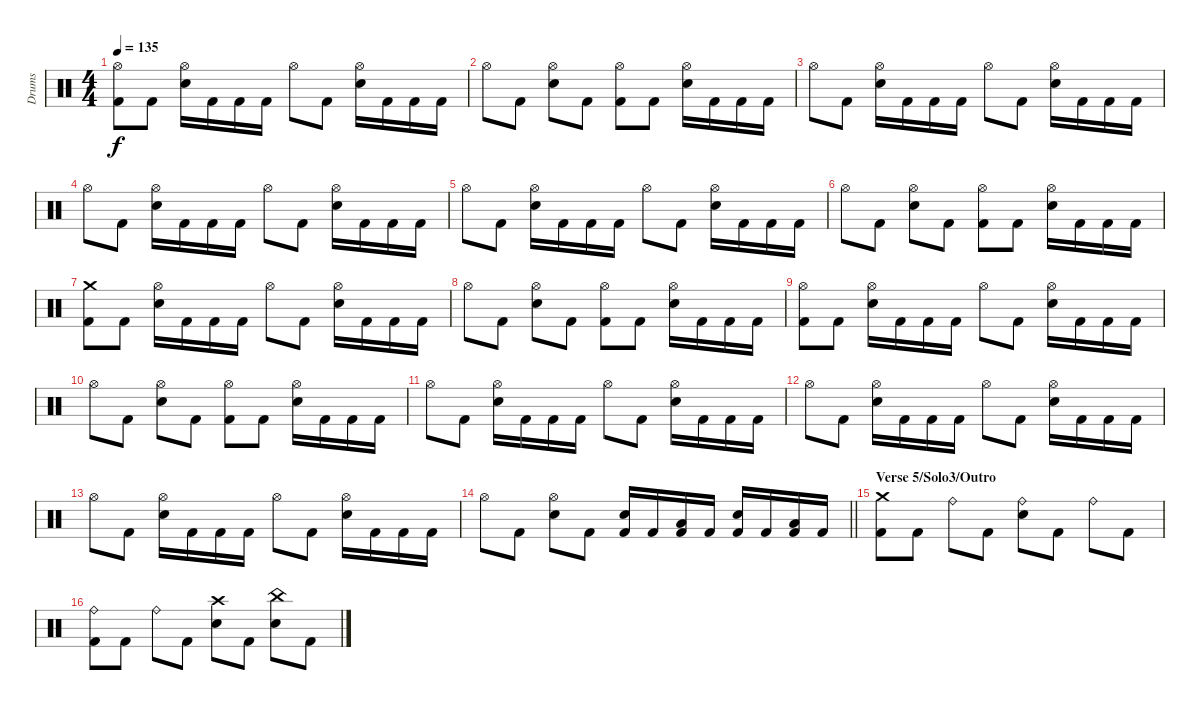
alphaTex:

\track ("Drums" "Drums") {instrument percussion}
\staff {score}
\articulation defaults
\ts (4 4)
\tempo 135
\clef neutral
\ks c
("Hi-Hat (open)" "Kick (hit) 2").8{dy f} "Kick (hit) 2".8 ("Hi-Hat (open)" "Snare (hit) 2").16 "Kick (hit) 2".16 "Kick (hit) 2".16 "Kick (hit) 2".16 "Hi-Hat (open)".8 "Kick (hit) 2".8 ("Hi-Hat (open)" "Snare (hit) 2").16 "Kick (hit) 2".16 "Kick (hit) 2".16 "Kick (hit) 2".16 |
"Hi-Hat (open)".8 "Kick (hit) 2".8 ("Hi-Hat (open)" "Snare (hit) 2").8 "Kick (hit) 2".8 ("Hi-Hat (open)" "Kick (hit) 2").8 "Kick (hit) 2".8 ("Hi-Hat (open)" "Snare (hit) 2").16 "Kick (hit) 2".16 "Kick (hit) 2".16 "Kick (hit) 2".16 |
"Hi-Hat (open)".8 "Kick (hit) 2".8 ("Hi-Hat (open)" "Snare (hit) 2").16 "Kick (hit) 2".16 "Kick (hit) 2".16 "Kick (hit) 2".16 "Hi-Hat (open)".8 "Kick (hit) 2".8 ("Hi-Hat (open)" "Snare (hit) 2").16 "Kick (hit) 2".16 "Kick (hit) 2".16 "Kick (hit) 2".16 |
"Hi-Hat (open)".8 "Kick (hit) 2".8 ("Hi-Hat (open)" "Snare (hit) 2").16 "Kick (hit) 2".16 "Kick (hit) 2".16 "Kick (hit) 2".16 "Hi-Hat (open)".8 "Kick (hit) 2".8 ("Hi-Hat (open)" "Snare (hit) 2").16 "Kick (hit) 2".16 "Kick (hit) 2".16 "Kick (hit) 2".16 |
"Hi-Hat (open)".8 "Kick (hit) 2".8 ("Hi-Hat (open)" "Snare (hit) 2").16 "Kick (hit) 2".16 "Kick (hit) 2".16 "Kick (hit) 2".16 "Hi-Hat (open)".8 "Kick (hit) 2".8 ("Hi-Hat (open)" "Snare (hit) 2").16 "Kick (hit) 2".16 "Kick (hit) 2".16 "Kick (hit) 2".16 |
"Hi-Hat (open)".8 "Kick (hit) 2".8 ("Hi-Hat (open)" "Snare (hit) 2").8 "Kick (hit) 2".8 ("Hi-Hat (open)" "Kick (hit) 2").8 "Kick (hit) 2".8 ("Hi-Hat (open)" "Snare (hit) 2").16 "Kick (hit) 2".16 "Kick (hit) 2".16 "Kick (hit) 2".16 |
("Crash medium (hit)" "Kick (hit) 2").8 "Kick (hit) 2".8 ("Hi-Hat (open)" "Snare (hit) 2").16 "Kick (hit) 2".16 "Kick (hit) 2".16 "Kick (hit) 2".16 "Hi-Hat (open)".8 "Kick (hit) 2".8 ("Hi-Hat (open)" "Snare (hit) 2").16 "Kick (hit) 2".16 "Kick (hit) 2".16 "Kick (hit) 2".16 |
"Hi-Hat (open)".8 "Kick (hit) 2".8 ("Hi-Hat (open)" "Snare (hit) 2").8 "Kick (hit) 2".8 ("Hi-Hat (open)" "Kick (hit) 2").8 "Kick (hit) 2".8 ("Hi-Hat (open)" "Snare (hit) 2").16 "Kick (hit) 2".16 "Kick (hit) 2".16 "Kick (hit) 2".16 |
("Hi-Hat (open)" "Kick (hit) 2").8 "Kick (hit) 2".8 ("Hi-Hat (open)" "Snare (hit) 2").16 "Kick (hit) 2".16 "Kick (hit) 2".16 "Kick (hit) 2".16 "Hi-Hat (open)".8 "Kick (hit) 2".8 ("Hi-Hat (open)" "Snare (hit) 2").16 "Kick (hit) 2".16 "Kick (hit) 2".16 "Kick (hit) 2".16 |
"Hi-Hat (open)".8 "Kick (hit) 2".8 ("Hi-Hat (open)" "Snare (hit) 2").8 "Kick (hit) 2".8 ("Hi-Hat (open)" "Kick (hit) 2").8 "Kick (hit) 2".8 ("Hi-Hat (open)" "Snare (hit) 2").16 "Kick (hit) 2".16 "Kick (hit) 2".16 "Kick (hit) 2".16 |
"Hi-Hat (open)".8 "Kick (hit) 2".8 ("Hi-Hat (open)" "Snare (hit) 2").16 "Kick (hit) 2".16 "Kick (hit) 2".16 "Kick (hit) 2".16 "Hi-Hat (open)".8 "Kick (hit) 2".8 ("Hi-Hat (open)" "Snare (hit) 2").16 "Kick (hit) 2".16 "Kick (hit) 2".16 "Kick (hit) 2".16 |
"Hi-Hat (open)".8 "Kick (hit) 2".8 ("Hi-Hat (open)" "Snare (hit) 2").16 "Kick (hit) 2".16 "Kick (hit) 2".16 "Kick (hit) 2".16 "Hi-Hat (open)".8 "Kick (hit) 2".8 ("Hi-Hat (open)" "Snare (hit) 2").16 "Kick (hit) 2".16 "Kick (hit) 2".16 "Kick (hit) 2".16 |
"Hi-Hat (open)".8 "Kick (hit) 2".8 ("Hi-Hat (open)" "Snare (hit) 2").16 "Kick (hit) 2".16 "Kick (hit) 2".16 "Kick (hit) 2".16 "Hi-Hat (open)".8 "Kick (hit) 2".8 ("Hi-Hat (open)" "Snare (hit) 2").16 "Kick (hit) 2".16 "Kick (hit) 2".16 "Kick (hit) 2".16 |
\barLineRight lightlight "Hi-Hat (open)".8 "Kick (hit) 2".8
("Hi-Hat (open)" "Snare (hit) 2").8 "Kick (hit) 2".8 ("Snare (hit) 2" "Kick (hit) 2").16 "Kick (hit) 2".16 ("Low Tom (hit)" "Kick (hit) 2").16 "Kick (hit) 2".16 ("Snare (hit) 2" "Kick (hit) 2").16 "Kick (hit) 2".16 ("Low Tom (hit)" "Kick (hit) 2").16 "Kick (hit) 2".16 |
\section ("" "Verse 5/Solo3/Outro")
("Crash medium (hit)" "Kick (hit) 2").8 "Kick (hit) 2".8 "Ride (bell)".8 "Kick (hit) 2".8 ("Ride (bell)" "Snare (hit) 2").8 "Kick (hit) 2".8 "Ride (bell)".8 "Kick (hit) 2".8 |
("Ride (bell)" "Kick (hit) 2").8 "Kick (hit) 2".8 "Ride (bell)".8 "Kick (hit) 2".8 ("Crash high (hit)" "Snare (hit) 2").8 "Kick (hit) 2".8 ("China (hit)" "Snare (hit) 2").8 "Kick (hit) 2".8
